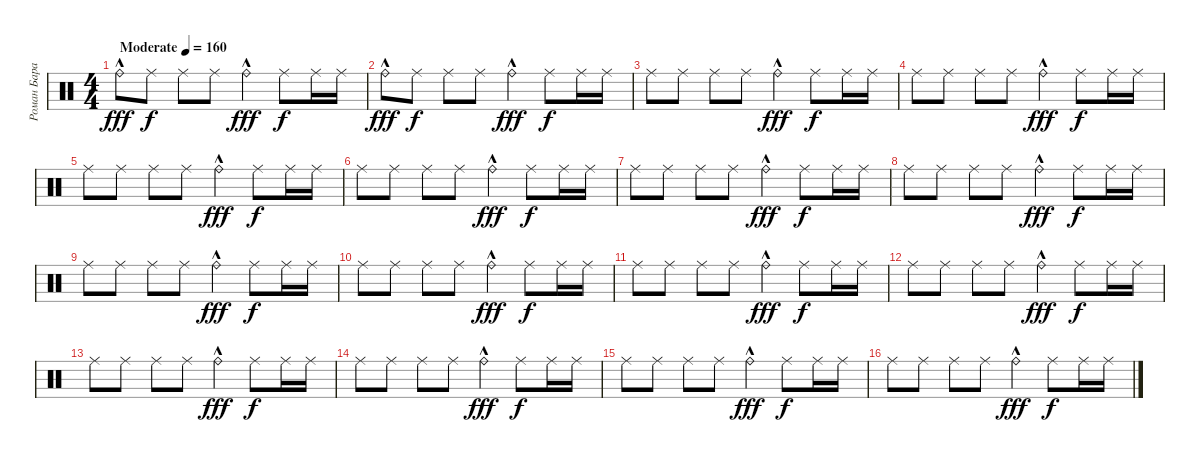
\track ("Роман Баранюк" "Роман Бара") {instrument percussion}
\staff {score}
\articulation defaults
\ts (4 4)
\tempo (160 "Moderate")
\clef neutral
\ks c "Ride (bell)"{hac}.8{dy fff} "Ride (middle)".8{dy f} "Ride (middle)".8 "Ride (middle)".8 "Ride (bell)"{hac}.4{dy fff} "Ride (middle)".8{dy f} "Ride (middle)".16 "Ride (middle)".16
|
"Ride (bell)"{hac}.8{dy fff} "Ride (middle)".8{dy f} "Ride (middle)".8 "Ride (middle)".8 "Ride (bell)"{hac}.4{dy fff} "Ride (middle)".8{dy f} "Ride (middle)".16 "Ride (middle)".16 |
"Ride (middle)".8 "Ride (middle)".8 "Ride (middle)".8 "Ride (middle)".8 "Ride (bell)"{hac}.4{dy fff} "Ride (middle)".8{dy f} "Ride (middle)".16 "Ride (middle)".16 |
"Ride (middle)".8 "Ride (middle)".8 "Ride (middle)".8 "Ride (middle)".8 "Ride (bell)"{hac}.4{dy fff} "Ride (middle)".8{dy f} "Ride (middle)".16 "Ride (middle)".16 |
"Ride (middle)".8 "Ride (middle)".8 "Ride (middle)".8 "Ride (middle)".8 "Ride (bell)"{hac}.4{dy fff} "Ride (middle)".8{dy f} "Ride (middle)".16 "Ride (middle)".16 |
"Ride (middle)".8 "Ride (middle)".8 "Ride (middle)".8 "Ride (middle)".8 "Ride (bell)"{hac}.4{dy fff} "Ride (middle)".8{dy f} "Ride (middle)".16 "Ride (middle)".16 |
"Ride (middle)".8 "Ride (middle)".8 "Ride (middle)".8 "Ride (middle)".8 "Ride (bell)"{hac}.4{dy fff} "Ride (middle)".8{dy f} "Ride (middle)".16 "Ride (middle)".16 |
"Ride (middle)".8 "Ride (middle)".8 "Ride (middle)".8 "Ride (middle)".8 "Ride (bell)"{hac}.4{dy fff} "Ride (middle)".8{dy f} "Ride (middle)".16 "Ride (middle)".16 |
"Ride (middle)".8 "Ride (middle)".8 "Ride (middle)".8 "Ride (middle)".8 "Ride (bell)"{hac}.4{dy fff} "Ride (middle)".8{dy f} "Ride (middle)".16 "Ride (middle)".16 |
"Ride (middle)".8 "Ride (middle)".8 "Ride (middle)".8 "Ride (middle)".8 "Ride (bell)"{hac}.4{dy fff} "Ride (middle)".8{dy f} "Ride (middle)".16 "Ride (middle)".16 |
"Ride (middle)".8 "Ride (middle)".8 "Ride (middle)".8 "Ride (middle)".8 "Ride (bell)"{hac}.4{dy fff} "Ride (middle)".8{dy f} "Ride (middle)".16 "Ride (middle)".16 |
"Ride (middle)".8 "Ride (middle)".8 "Ride (middle)".8 "Ride (middle)".8 "Ride (bell)"{hac}.4{dy fff} "Ride (middle)".8{dy f} "Ride (middle)".16 "Ride (middle)".16 |
"Ride (middle)".8 "Ride (middle)".8 "Ride (middle)".8 "Ride (middle)".8 "Ride (bell)"{hac}.4{dy fff} "Ride (middle)".8{dy f} "Ride (middle)".16 "Ride (middle)".16 |
"Ride (middle)".8 "Ride (middle)".8 "Ride (middle)".8 "Ride (middle)".8 "Ride (bell)"{hac}.4{dy fff} "Ride (middle)".8{dy f} "Ride (middle)".16 "Ride (middle)".16 |
"Ride (middle)".8 "Ride (middle)".8 "Ride (middle)".8 "Ride (middle)".8 "Ride (bell)"{hac}.4{dy fff} "Ride (middle)".8{dy f} "Ride (middle)".16 "Ride (middle)".16 |
"Ride (middle)".8 "Ride (middle)".8 "Ride (middle)".8 "Ride (middle)".8 "Ride (bell)"{hac}.4{dy fff} "Ride (middle)".8{dy f} "Ride (middle)".16 "Ride (middle)".16
